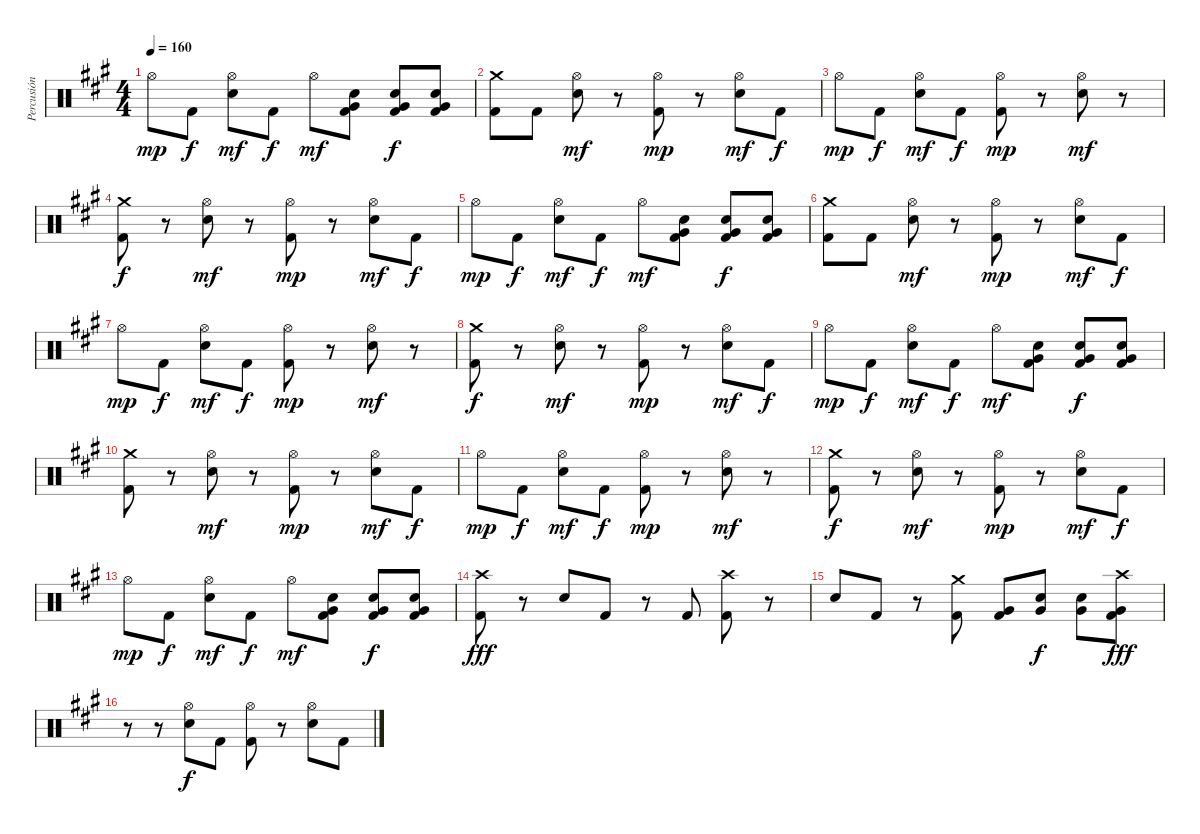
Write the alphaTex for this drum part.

\track ("Percusión" "Percusión") {instrument percussion}
\staff {score}
\articulation defaults
\ts (4 4)
\tempo 160
\clef neutral
\ks a "Hi-Hat (open)".8{dy mp} "Kick (hit) 2".8{dy f}
("Hi-Hat (open)" "Electric Snare (hit)").8{dy mf} "Kick (hit) 2".8{dy f} "Hi-Hat (open)".8{dy mf} ("Very Low Tom (hit)" "Electric Snare (hit)" "Kick (hit) 2").8 ("Very Low Tom (hit)" "Electric Snare (hit)" "Kick (hit) 2").8{dy f} ("Very Low Tom (hit)" "Electric Snare (hit)" "Kick (hit) 2").8 |
("Crash medium (hit)" "Kick (hit) 2").8 "Kick (hit) 2".8 ("Hi-Hat (open)" "Electric Snare (hit)").8{dy mf} r.8 ("Hi-Hat (open)" "Kick (hit) 2").8{dy mp} r.8 ("Hi-Hat (open)" "Electric Snare (hit)").8{dy mf} "Kick (hit) 2".8{dy f} |
"Hi-Hat (open)".8{dy mp} "Kick (hit) 2".8{dy f} ("Hi-Hat (open)" "Electric Snare (hit)").8{dy mf} "Kick (hit) 2".8{dy f} ("Hi-Hat (open)" "Kick (hit) 2").8{dy mp} r.8 ("Hi-Hat (open)" "Electric Snare (hit)").8{dy mf} r.8 |
("Crash medium (hit)" "Kick (hit) 2").8{dy f} r.8 ("Hi-Hat (open)" "Electric Snare (hit)").8{dy mf} r.8 ("Hi-Hat (open)" "Kick (hit) 2").8{dy mp} r.8 ("Hi-Hat (open)" "Electric Snare (hit)").8{dy mf} "Kick (hit) 2".8{dy f} |
"Hi-Hat (open)".8{dy mp} "Kick (hit) 2".8{dy f} ("Hi-Hat (open)" "Electric Snare (hit)").8{dy mf} "Kick (hit) 2".8{dy f} "Hi-Hat (open)".8{dy mf} ("Very Low Tom (hit)" "Electric Snare (hit)" "Kick (hit) 2").8 ("Very Low Tom (hit)" "Electric Snare (hit)" "Kick (hit) 2").8{dy f} ("Very Low Tom (hit)" "Electric Snare (hit)" "Kick (hit) 2").8 |
("Crash medium (hit)" "Kick (hit) 2").8 "Kick (hit) 2".8 ("Hi-Hat (open)" "Electric Snare (hit)").8{dy mf} r.8 ("Hi-Hat (open)" "Kick (hit) 2").8{dy mp} r.8 ("Hi-Hat (open)" "Electric Snare (hit)").8{dy mf} "Kick (hit) 2".8{dy f} |
"Hi-Hat (open)".8{dy mp} "Kick (hit) 2".8{dy f} ("Hi-Hat (open)" "Electric Snare (hit)").8{dy mf} "Kick (hit) 2".8{dy f} ("Hi-Hat (open)" "Kick (hit) 2").8{dy mp} r.8 ("Hi-Hat (open)" "Electric Snare (hit)").8{dy mf} r.8 |
("Crash medium (hit)" "Kick (hit) 2").8{dy f} r.8 ("Hi-Hat (open)" "Electric Snare (hit)").8{dy mf} r.8 ("Hi-Hat (open)" "Kick (hit) 2").8{dy mp} r.8 ("Hi-Hat (open)" "Electric Snare (hit)").8{dy mf} "Kick (hit) 2".8{dy f} |
"Hi-Hat (open)".8{dy mp} "Kick (hit) 2".8{dy f} ("Hi-Hat (open)" "Electric Snare (hit)").8{dy mf} "Kick (hit) 2".8{dy f} "Hi-Hat (open)".8{dy mf} ("Very Low Tom (hit)" "Electric Snare (hit)" "Kick (hit) 2").8 ("Very Low Tom (hit)" "Electric Snare (hit)" "Kick (hit) 2").8{dy f} ("Very Low Tom (hit)" "Electric Snare (hit)" "Kick (hit) 2").8 |
("Crash medium (hit)" "Kick (hit) 2").8 r.8 ("Hi-Hat (open)" "Electric Snare (hit)").8{dy mf} r.8 ("Hi-Hat (open)" "Kick (hit) 2").8{dy mp} r.8 ("Hi-Hat (open)" "Electric Snare (hit)").8{dy mf} "Kick (hit) 2".8{dy f} |
"Hi-Hat (open)".8{dy mp} "Kick (hit) 2".8{dy f} ("Hi-Hat (open)" "Electric Snare (hit)").8{dy mf} "Kick (hit) 2".8{dy f} ("Hi-Hat (open)" "Kick (hit) 2").8{dy mp} r.8 ("Hi-Hat (open)" "Electric Snare (hit)").8{dy mf} r.8 |
("Crash medium (hit)" "Kick (hit) 2").8{dy f} r.8 ("Hi-Hat (open)" "Electric Snare (hit)").8{dy mf} r.8 ("Hi-Hat (open)" "Kick (hit) 2").8{dy mp} r.8 ("Hi-Hat (open)" "Electric Snare (hit)").8{dy mf} "Kick (hit) 2".8{dy f} |
"Hi-Hat (open)".8{dy mp} "Kick (hit) 2".8{dy f} ("Hi-Hat (open)" "Electric Snare (hit)").8{dy mf} "Kick (hit) 2".8{dy f} "Hi-Hat (open)".8{dy mf} ("Very Low Tom (hit)" "Electric Snare (hit)" "Kick (hit) 2").8 ("Very Low Tom (hit)" "Electric Snare (hit)" "Kick (hit) 2").8{dy f} ("Very Low Tom (hit)" "Electric Snare (hit)" "Kick (hit) 2").8 |
("Crash high (hit)" "Kick (hit) 2").8{dy fff} r.8 "Electric Snare (hit)".8 "Kick (hit) 2".8 r.8 "Kick (hit) 2".8 ("Crash high (hit)" "Kick (hit) 2").8 r.8 |
"Electric Snare (hit)".8 "Kick (hit) 2".8 r.8 ("Crash medium (hit)" "Kick (hit) 2").8 ("Very Low Tom (hit)" "Kick (hit) 2").8 ("Very Low Tom (hit)" "Electric Snare (hit)").8{dy f} ("Very Low Tom (hit)" "Electric Snare (hit)").8 ("Crash high (hit)" "Very Low Tom (hit)" "Kick (hit) 2").8{dy fff} |
r.8 r.8 ("Hi-Hat (open)" "Electric Snare (hit)").8{dy f} "Kick (hit) 2".8 ("Hi-Hat (open)" "Kick (hit) 2").8 r.8 ("Hi-Hat (open)" "Electric Snare (hit)").8 "Kick (hit) 2".8
